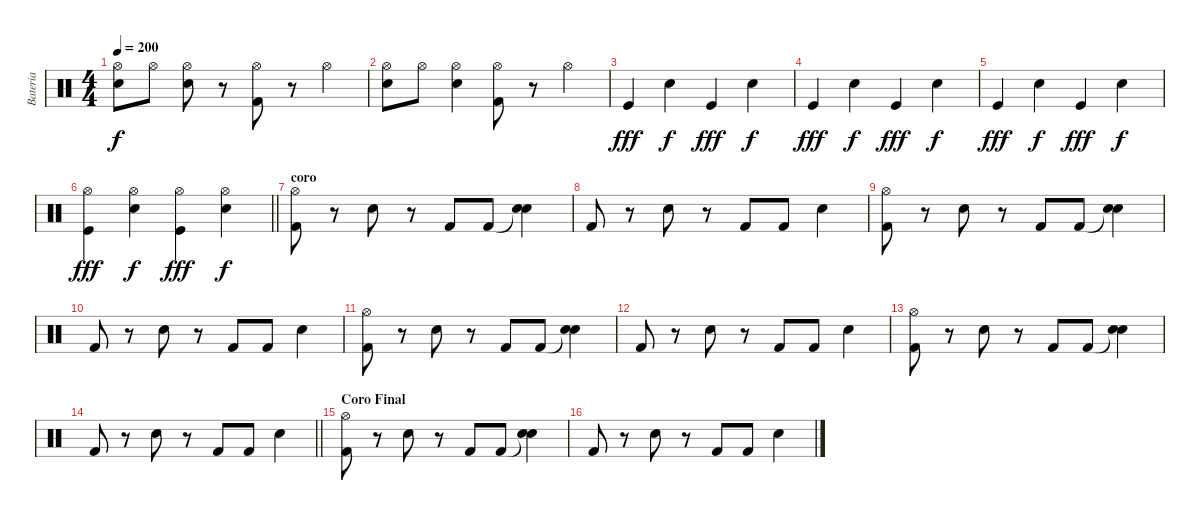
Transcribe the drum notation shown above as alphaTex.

\track ("Bateria" "Bateria") {instrument percussion}
\staff {score}
\articulation defaults
\ts (4 4)
\tempo 200
\clef neutral
\ks c
("Hi-Hat (open)" "Snare (hit) 2").8{dy f} "Hi-Hat (open)".8 ("Hi-Hat (open)" "Snare (hit) 2").8 r.8 ("Hi-Hat (open)" "Kick (hit) 2").8 r.8 "Hi-Hat (open)".4 |
("Hi-Hat (open)" "Snare (hit) 2").8 "Hi-Hat (open)".8 ("Hi-Hat (open)" "Snare (hit) 2").4 ("Hi-Hat (open)" "Kick (hit) 2").8 r.8 "Hi-Hat (open)".4 |
"Kick (hit)".4{dy fff} "Electric Snare (hit)".4{dy f} "Kick (hit)".4{dy fff} "Electric Snare (hit)".4{dy f} |
"Kick (hit)".4{dy fff} "Electric Snare (hit)".4{dy f} "Kick (hit)".4{dy fff} "Electric Snare (hit)".4{dy f} |
"Kick (hit)".4{dy fff} "Electric Snare (hit)".4{dy f} "Kick (hit)".4{dy fff} "Electric Snare (hit)".4{dy f} |
\barLineRight lightlight
("Hi-Hat (open)" "Kick (hit)").4{dy fff} ("Hi-Hat (open)" "Electric Snare (hit)").4{dy f} ("Hi-Hat (open)" "Kick (hit)").4{dy fff} ("Hi-Hat (open)" "Electric Snare (hit)").4{dy f} |
\section ("" "coro")
("Hi-Hat (open)" "Kick (hit) 2").8 r.8 "Snare (hit) 2".8 r.8 "Kick (hit) 2".8 "Kick (hit) 2".8 ("Snare (hit)"{t} "Snare (hit) 2").4 |
"Kick (hit) 2".8 r.8 "Snare (hit) 2".8 r.8 "Kick (hit) 2".8 "Kick (hit) 2".8 "Snare (hit) 2".4 |
("Hi-Hat (open)" "Kick (hit) 2").8 r.8 "Snare (hit) 2".8 r.8 "Kick (hit) 2".8 "Kick (hit) 2".8 ("Snare (hit)"{t} "Snare (hit) 2").4 |
"Kick (hit) 2".8 r.8 "Snare (hit) 2".8 r.8 "Kick (hit) 2".8 "Kick (hit) 2".8 "Snare (hit) 2".4 |
("Hi-Hat (open)" "Kick (hit) 2").8 r.8 "Snare (hit) 2".8 r.8 "Kick (hit) 2".8 "Kick (hit) 2".8 ("Snare (hit)"{t} "Snare (hit) 2").4 |
"Kick (hit) 2".8 r.8 "Snare (hit) 2".8 r.8 "Kick (hit) 2".8 "Kick (hit) 2".8 "Snare (hit) 2".4 |
("Hi-Hat (open)" "Kick (hit) 2").8 r.8 "Snare (hit) 2".8 r.8 "Kick (hit) 2".8 "Kick (hit) 2".8 ("Snare (hit)"{t} "Snare (hit) 2").4 |
\barLineRight lightlight "Kick (hit) 2".8
r.8 "Snare (hit) 2".8 r.8 "Kick (hit) 2".8 "Kick (hit) 2".8 "Snare (hit) 2".4 |
\section ("" "Coro Final")
("Hi-Hat (open)" "Kick (hit) 2").8 r.8 "Snare (hit) 2".8 r.8 "Kick (hit) 2".8 "Kick (hit) 2".8 ("Snare (hit)"{t} "Snare (hit) 2").4 |
"Kick (hit) 2".8 r.8 "Snare (hit) 2".8 r.8 "Kick (hit) 2".8 "Kick (hit) 2".8 "Snare (hit) 2".4
